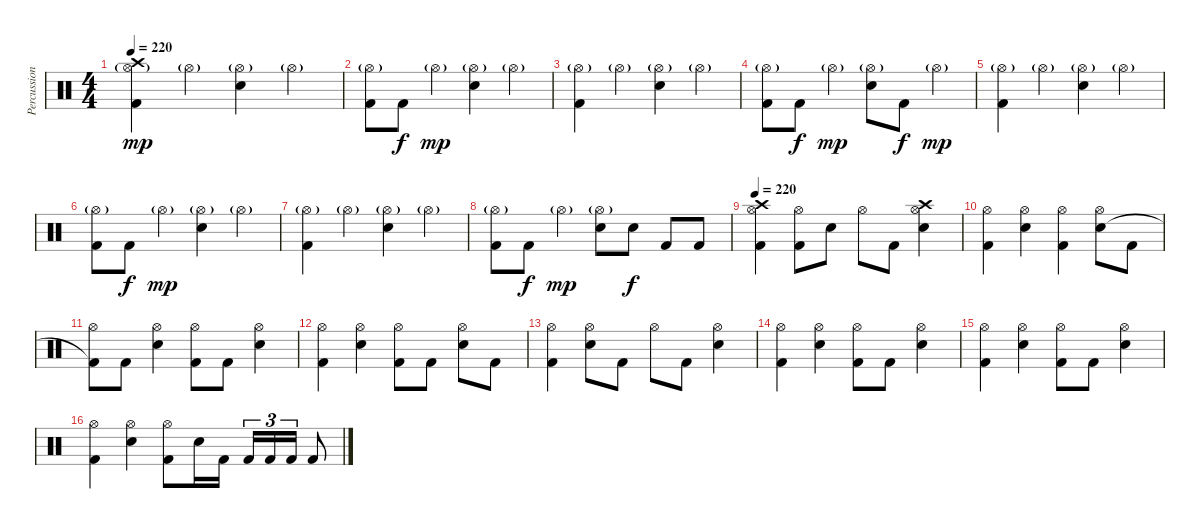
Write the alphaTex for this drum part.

\track ("Percussion" "Percussion") {instrument percussion}
\staff {score}
\articulation defaults
\ts (4 4)
\tempo 220
\clef neutral
\ks c
("Hi-Hat (open)"{g} "Crash high (hit)" "Kick (hit) 2").4{dy mp} "Hi-Hat (open)"{g}.4 ("Hi-Hat (open)"{g} "Snare (hit) 2").4 "Hi-Hat (open)"{g}.4 |
("Hi-Hat (open)"{g} "Kick (hit) 2").8 "Kick (hit) 2".8{dy f} "Hi-Hat (open)"{g}.4{dy mp} ("Hi-Hat (open)"{g} "Snare (hit) 2").4 "Hi-Hat (open)"{g}.4 |
("Hi-Hat (open)"{g} "Kick (hit) 2").4 "Hi-Hat (open)"{g}.4 ("Hi-Hat (open)"{g} "Snare (hit) 2").4 "Hi-Hat (open)"{g}.4 |
("Hi-Hat (open)"{g} "Kick (hit) 2").8 "Kick (hit) 2".8{dy f} "Hi-Hat (open)"{g}.4{dy mp} ("Hi-Hat (open)"{g} "Snare (hit) 2").8 "Kick (hit) 2".8{dy f} "Hi-Hat (open)"{g}.4{dy mp} |
("Hi-Hat (open)"{g} "Kick (hit) 2").4 "Hi-Hat (open)"{g}.4 ("Hi-Hat (open)"{g} "Snare (hit) 2").4 "Hi-Hat (open)"{g}.4 |
("Hi-Hat (open)"{g} "Kick (hit) 2").8 "Kick (hit) 2".8{dy f} "Hi-Hat (open)"{g}.4{dy mp} ("Hi-Hat (open)"{g} "Snare (hit) 2").4 "Hi-Hat (open)"{g}.4 |
("Hi-Hat (open)"{g} "Kick (hit) 2").4 "Hi-Hat (open)"{g}.4 ("Hi-Hat (open)"{g} "Snare (hit) 2").4 "Hi-Hat (open)"{g}.4 |
("Hi-Hat (open)"{g} "Kick (hit) 2").8 "Kick (hit) 2".8{dy f} "Hi-Hat (open)"{g}.4{dy mp} ("Hi-Hat (open)"{g} "Snare (hit) 2").8 "Snare (hit) 2".8{dy f} "Kick (hit) 2".8 "Kick (hit) 2".8 |
\tempo 220
("Hi-Hat (open)" "Crash high (hit)" "Kick (hit) 2").4 ("Hi-Hat (open)" "Kick (hit) 2").8 "Snare (hit) 2".8 "Hi-Hat (open)".8 "Kick (hit) 2".8 ("Hi-Hat (open)" "Crash high (hit)" "Snare (hit) 2").4 |
("Hi-Hat (open)" "Kick (hit) 2").4 ("Hi-Hat (open)" "Snare (hit) 2").4 ("Hi-Hat (open)" "Kick (hit) 2").4 ("Hi-Hat (open)" "Snare (hit) 2").8 "Kick (hit) 2".8 |
("Hi-Hat (open)" "Kick (hit) 2"{t}).8 "Kick (hit) 2".8 ("Hi-Hat (open)" "Snare (hit) 2").4 ("Hi-Hat (open)" "Kick (hit) 2").8 "Kick (hit) 2".8 ("Hi-Hat (open)" "Snare (hit) 2").4 |
("Hi-Hat (open)" "Kick (hit) 2").4 ("Hi-Hat (open)" "Snare (hit) 2").4 ("Hi-Hat (open)" "Kick (hit) 2").8 "Kick (hit) 2".8 ("Hi-Hat (open)" "Snare (hit) 2").8 "Kick (hit) 2".8 |
("Hi-Hat (open)" "Kick (hit) 2").4 ("Hi-Hat (open)" "Snare (hit) 2").8 "Kick (hit) 2".8 "Hi-Hat (open)".8 "Kick (hit) 2".8 ("Hi-Hat (open)" "Snare (hit) 2").4 |
("Hi-Hat (open)" "Kick (hit) 2").4 ("Hi-Hat (open)" "Snare (hit) 2").4 ("Hi-Hat (open)" "Kick (hit) 2").8 "Kick (hit) 2".8 ("Hi-Hat (open)" "Snare (hit) 2").4 |
("Hi-Hat (open)" "Kick (hit) 2").4 ("Hi-Hat (open)" "Snare (hit) 2").4 ("Hi-Hat (open)" "Kick (hit) 2").8 "Kick (hit) 2".8 ("Hi-Hat (open)" "Snare (hit) 2").4 |
("Hi-Hat (open)" "Kick (hit) 2").4 ("Hi-Hat (open)" "Snare (hit) 2").4 ("Hi-Hat (open)" "Kick (hit) 2").8 "Snare (hit) 2".16 "Kick (hit) 2".16 "Kick (hit) 2".16{tu (3 2)} "Kick (hit) 2".16{tu (3 2)} "Kick (hit) 2".16{tu (3 2)} "Kick (hit) 2".8
